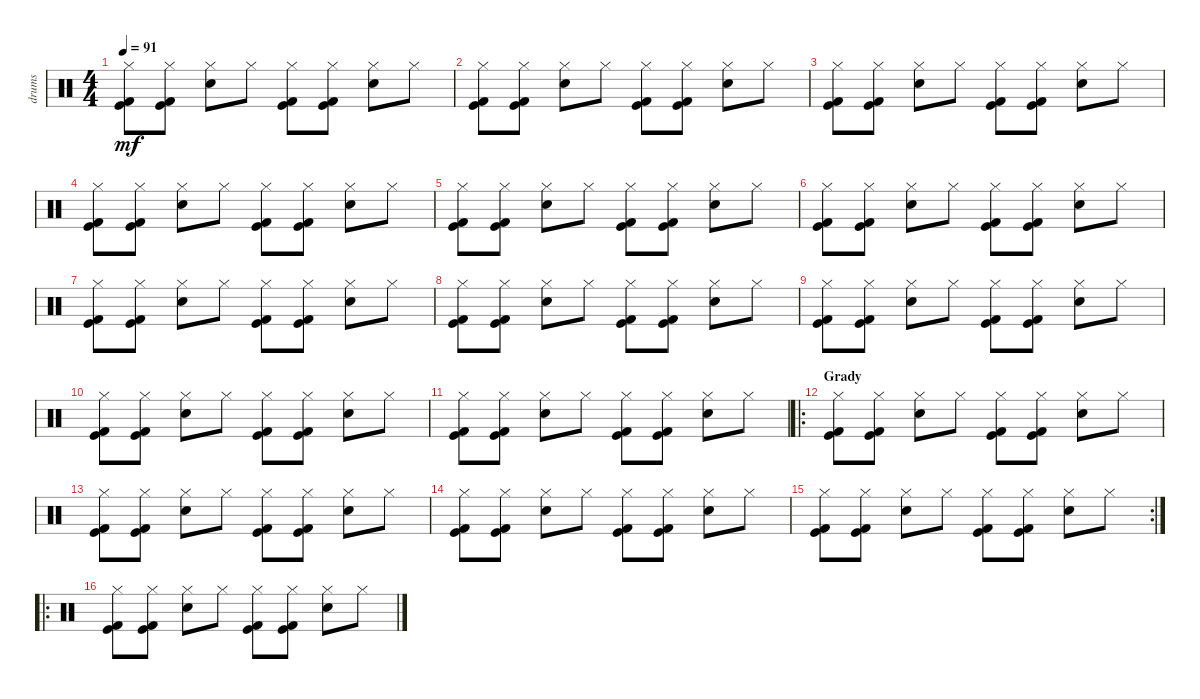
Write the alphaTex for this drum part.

\track ("drums" "drums") {instrument percussion}
\staff {score}
\articulation defaults
\ts (4 4)
\tempo 91
\clef neutral
\ks c
("Hi-Hat (closed)" "Kick (hit) 2" "Kick (hit)").8{dy mf} ("Hi-Hat (closed)" "Kick (hit) 2" "Kick (hit)").8 ("Hi-Hat (closed)" "Electric Snare (hit)").8 "Hi-Hat (closed)".8 ("Hi-Hat (closed)" "Kick (hit) 2" "Kick (hit)").8 ("Hi-Hat (closed)" "Kick (hit) 2" "Kick (hit)").8 ("Hi-Hat (closed)" "Electric Snare (hit)").8 "Hi-Hat (closed)".8 |
("Hi-Hat (closed)" "Kick (hit) 2" "Kick (hit)").8 ("Hi-Hat (closed)" "Kick (hit) 2" "Kick (hit)").8 ("Hi-Hat (closed)" "Electric Snare (hit)").8 "Hi-Hat (closed)".8 ("Hi-Hat (closed)" "Kick (hit) 2" "Kick (hit)").8 ("Hi-Hat (closed)" "Kick (hit) 2" "Kick (hit)").8 ("Hi-Hat (closed)" "Electric Snare (hit)").8 "Hi-Hat (closed)".8 |
("Hi-Hat (closed)" "Kick (hit) 2" "Kick (hit)").8 ("Hi-Hat (closed)" "Kick (hit) 2" "Kick (hit)").8 ("Hi-Hat (closed)" "Electric Snare (hit)").8 "Hi-Hat (closed)".8 ("Hi-Hat (closed)" "Kick (hit) 2" "Kick (hit)").8 ("Hi-Hat (closed)" "Kick (hit) 2" "Kick (hit)").8 ("Hi-Hat (closed)" "Electric Snare (hit)").8 "Hi-Hat (closed)".8 |
("Hi-Hat (closed)" "Kick (hit) 2" "Kick (hit)").8 ("Hi-Hat (closed)" "Kick (hit) 2" "Kick (hit)").8 ("Hi-Hat (closed)" "Electric Snare (hit)").8 "Hi-Hat (closed)".8 ("Hi-Hat (closed)" "Kick (hit) 2" "Kick (hit)").8 ("Hi-Hat (closed)" "Kick (hit) 2" "Kick (hit)").8 ("Hi-Hat (closed)" "Electric Snare (hit)").8 "Hi-Hat (closed)".8 |
("Hi-Hat (closed)" "Kick (hit) 2" "Kick (hit)").8 ("Hi-Hat (closed)" "Kick (hit) 2" "Kick (hit)").8 ("Hi-Hat (closed)" "Electric Snare (hit)").8 "Hi-Hat (closed)".8 ("Hi-Hat (closed)" "Kick (hit) 2" "Kick (hit)").8 ("Hi-Hat (closed)" "Kick (hit) 2" "Kick (hit)").8 ("Hi-Hat (closed)" "Electric Snare (hit)").8 "Hi-Hat (closed)".8 |
("Hi-Hat (closed)" "Kick (hit) 2" "Kick (hit)").8 ("Hi-Hat (closed)" "Kick (hit) 2" "Kick (hit)").8 ("Hi-Hat (closed)" "Electric Snare (hit)").8 "Hi-Hat (closed)".8 ("Hi-Hat (closed)" "Kick (hit) 2" "Kick (hit)").8 ("Hi-Hat (closed)" "Kick (hit) 2" "Kick (hit)").8 ("Hi-Hat (closed)" "Electric Snare (hit)").8 "Hi-Hat (closed)".8 |
("Hi-Hat (closed)" "Kick (hit) 2" "Kick (hit)").8 ("Hi-Hat (closed)" "Kick (hit) 2" "Kick (hit)").8 ("Hi-Hat (closed)" "Electric Snare (hit)").8 "Hi-Hat (closed)".8 ("Hi-Hat (closed)" "Kick (hit) 2" "Kick (hit)").8 ("Hi-Hat (closed)" "Kick (hit) 2" "Kick (hit)").8 ("Hi-Hat (closed)" "Electric Snare (hit)").8 "Hi-Hat (closed)".8 |
("Hi-Hat (closed)" "Kick (hit) 2" "Kick (hit)").8 ("Hi-Hat (closed)" "Kick (hit) 2" "Kick (hit)").8 ("Hi-Hat (closed)" "Electric Snare (hit)").8 "Hi-Hat (closed)".8 ("Hi-Hat (closed)" "Kick (hit) 2" "Kick (hit)").8 ("Hi-Hat (closed)" "Kick (hit) 2" "Kick (hit)").8 ("Hi-Hat (closed)" "Electric Snare (hit)").8 "Hi-Hat (closed)".8 |
("Hi-Hat (closed)" "Kick (hit) 2" "Kick (hit)").8 ("Hi-Hat (closed)" "Kick (hit) 2" "Kick (hit)").8 ("Hi-Hat (closed)" "Electric Snare (hit)").8 "Hi-Hat (closed)".8 ("Hi-Hat (closed)" "Kick (hit) 2" "Kick (hit)").8 ("Hi-Hat (closed)" "Kick (hit) 2" "Kick (hit)").8 ("Hi-Hat (closed)" "Electric Snare (hit)").8 "Hi-Hat (closed)".8 |
("Hi-Hat (closed)" "Kick (hit) 2" "Kick (hit)").8 ("Hi-Hat (closed)" "Kick (hit) 2" "Kick (hit)").8 ("Hi-Hat (closed)" "Electric Snare (hit)").8 "Hi-Hat (closed)".8 ("Hi-Hat (closed)" "Kick (hit) 2" "Kick (hit)").8 ("Hi-Hat (closed)" "Kick (hit) 2" "Kick (hit)").8 ("Hi-Hat (closed)" "Electric Snare (hit)").8 "Hi-Hat (closed)".8 |
("Hi-Hat (closed)" "Kick (hit) 2" "Kick (hit)").8 ("Hi-Hat (closed)" "Kick (hit) 2" "Kick (hit)").8 ("Hi-Hat (closed)" "Electric Snare (hit)").8 "Hi-Hat (closed)".8 ("Hi-Hat (closed)" "Kick (hit) 2" "Kick (hit)").8 ("Hi-Hat (closed)" "Kick (hit) 2" "Kick (hit)").8 ("Hi-Hat (closed)" "Electric Snare (hit)").8 "Hi-Hat (closed)".8 |
\ro
\section ("" "Grady")
("Hi-Hat (closed)" "Kick (hit) 2" "Kick (hit)").8 ("Hi-Hat (closed)" "Kick (hit) 2" "Kick (hit)").8 ("Hi-Hat (closed)" "Electric Snare (hit)").8 "Hi-Hat (closed)".8 ("Hi-Hat (closed)" "Kick (hit) 2" "Kick (hit)").8 ("Hi-Hat (closed)" "Kick (hit) 2" "Kick (hit)").8 ("Hi-Hat (closed)" "Electric Snare (hit)").8 "Hi-Hat (closed)".8 |
("Hi-Hat (closed)" "Kick (hit) 2" "Kick (hit)").8 ("Hi-Hat (closed)" "Kick (hit) 2" "Kick (hit)").8 ("Hi-Hat (closed)" "Electric Snare (hit)").8 "Hi-Hat (closed)".8 ("Hi-Hat (closed)" "Kick (hit) 2" "Kick (hit)").8 ("Hi-Hat (closed)" "Kick (hit) 2" "Kick (hit)").8 ("Hi-Hat (closed)" "Electric Snare (hit)").8 "Hi-Hat (closed)".8 |
("Hi-Hat (closed)" "Kick (hit) 2" "Kick (hit)").8 ("Hi-Hat (closed)" "Kick (hit) 2" "Kick (hit)").8 ("Hi-Hat (closed)" "Electric Snare (hit)").8 "Hi-Hat (closed)".8 ("Hi-Hat (closed)" "Kick (hit) 2" "Kick (hit)").8 ("Hi-Hat (closed)" "Kick (hit) 2" "Kick (hit)").8 ("Hi-Hat (closed)" "Electric Snare (hit)").8 "Hi-Hat (closed)".8 |
\rc 2
("Hi-Hat (closed)" "Kick (hit) 2" "Kick (hit)").8 ("Hi-Hat (closed)" "Kick (hit) 2" "Kick (hit)").8 ("Hi-Hat (closed)" "Electric Snare (hit)").8 "Hi-Hat (closed)".8 ("Hi-Hat (closed)" "Kick (hit) 2" "Kick (hit)").8 ("Hi-Hat (closed)" "Kick (hit) 2" "Kick (hit)").8 ("Hi-Hat (closed)" "Electric Snare (hit)").8 "Hi-Hat (closed)".8 |
\ro
("Hi-Hat (closed)" "Kick (hit) 2" "Kick (hit)").8 ("Hi-Hat (closed)" "Kick (hit) 2" "Kick (hit)").8 ("Hi-Hat (closed)" "Electric Snare (hit)").8 "Hi-Hat (closed)".8 ("Hi-Hat (closed)" "Kick (hit) 2" "Kick (hit)").8 ("Hi-Hat (closed)" "Kick (hit) 2" "Kick (hit)").8 ("Hi-Hat (closed)" "Electric Snare (hit)").8 "Hi-Hat (closed)".8
